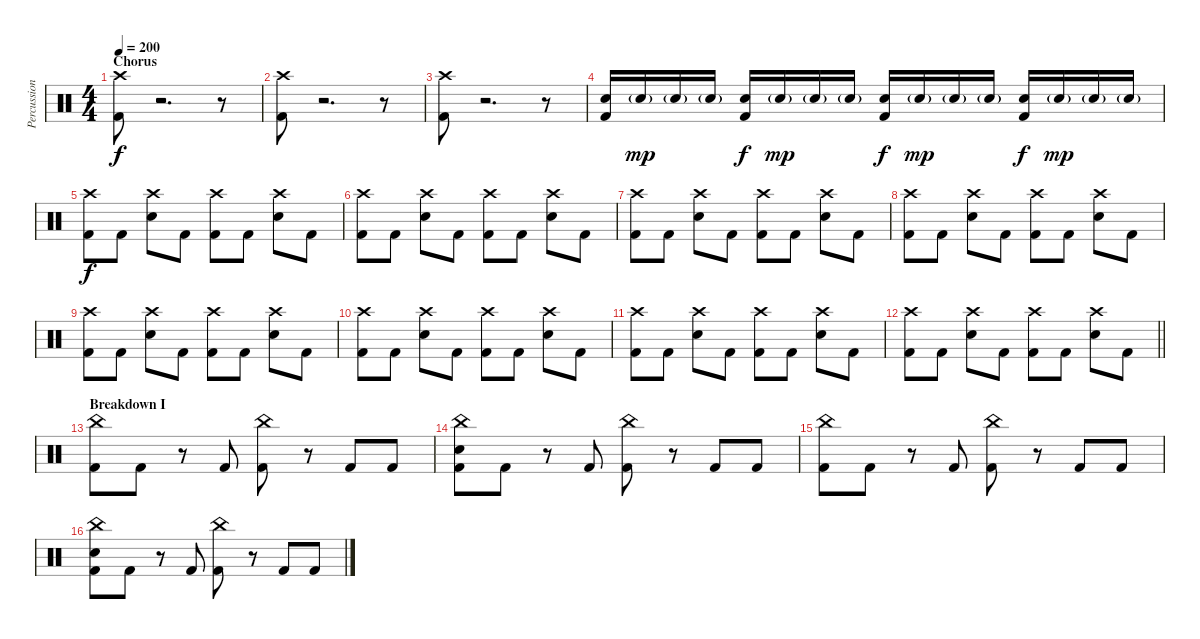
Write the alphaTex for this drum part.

\track ("Percussion" "Percussion") {instrument percussion}
\staff {score}
\articulation defaults
\ts (4 4)
\section ("" "Chorus")
\tempo 200
\clef neutral
\ks c
("Crash high (hit)" "Kick (hit) 2").8{dy f} r.2{d} r.8 |
("Crash high (hit)" "Kick (hit) 2").8 r.2{d} r.8 |
("Crash high (hit)" "Kick (hit) 2").8 r.2{d} r.8 |
("Electric Snare (hit)" "Kick (hit) 2").16 "Electric Snare (hit)"{g}.16{dy mp} "Electric Snare (hit)"{g}.16 "Electric Snare (hit)"{g}.16 ("Electric Snare (hit)" "Kick (hit) 2").16{dy f} "Electric Snare (hit)"{g}.16{dy mp} "Electric Snare (hit)"{g}.16 "Electric Snare (hit)"{g}.16 ("Electric Snare (hit)" "Kick (hit) 2").16{dy f} "Electric Snare (hit)"{g}.16{dy mp} "Electric Snare (hit)"{g}.16 "Electric Snare (hit)"{g}.16 ("Electric Snare (hit)" "Kick (hit) 2").16{dy f} "Electric Snare (hit)"{g}.16{dy mp} "Electric Snare (hit)"{g}.16 "Electric Snare (hit)"{g}.16 |
("Crash high (hit)" "Kick (hit) 2").8{dy f} "Kick (hit) 2".8 ("Crash high (hit)" "Electric Snare (hit)").8 "Kick (hit) 2".8 ("Crash high (hit)" "Kick (hit) 2").8 "Kick (hit) 2".8 ("Crash high (hit)" "Electric Snare (hit)").8 "Kick (hit) 2".8 |
("Crash high (hit)" "Kick (hit) 2").8 "Kick (hit) 2".8 ("Crash high (hit)" "Electric Snare (hit)").8 "Kick (hit) 2".8 ("Crash high (hit)" "Kick (hit) 2").8 "Kick (hit) 2".8 ("Crash high (hit)" "Electric Snare (hit)").8 "Kick (hit) 2".8 |
("Crash high (hit)" "Kick (hit) 2").8 "Kick (hit) 2".8 ("Crash high (hit)" "Electric Snare (hit)").8 "Kick (hit) 2".8 ("Crash high (hit)" "Kick (hit) 2").8 "Kick (hit) 2".8 ("Crash high (hit)" "Electric Snare (hit)").8 "Kick (hit) 2".8 |
("Crash high (hit)" "Kick (hit) 2").8 "Kick (hit) 2".8 ("Crash high (hit)" "Electric Snare (hit)").8 "Kick (hit) 2".8 ("Crash high (hit)" "Kick (hit) 2").8 "Kick (hit) 2".8 ("Crash high (hit)" "Electric Snare (hit)").8 "Kick (hit) 2".8 |
("Crash high (hit)" "Kick (hit) 2").8 "Kick (hit) 2".8 ("Crash high (hit)" "Electric Snare (hit)").8 "Kick (hit) 2".8 ("Crash high (hit)" "Kick (hit) 2").8 "Kick (hit) 2".8 ("Crash high (hit)" "Electric Snare (hit)").8 "Kick (hit) 2".8 |
("Crash high (hit)" "Kick (hit) 2").8 "Kick (hit) 2".8 ("Crash high (hit)" "Electric Snare (hit)").8 "Kick (hit) 2".8 ("Crash high (hit)" "Kick (hit) 2").8 "Kick (hit) 2".8 ("Crash high (hit)" "Electric Snare (hit)").8 "Kick (hit) 2".8 |
("Crash high (hit)" "Kick (hit) 2").8 "Kick (hit) 2".8 ("Crash high (hit)" "Electric Snare (hit)").8 "Kick (hit) 2".8 ("Crash high (hit)" "Kick (hit) 2").8 "Kick (hit) 2".8 ("Crash high (hit)" "Electric Snare (hit)").8 "Kick (hit) 2".8 |
\barLineRight lightlight
("Crash high (hit)" "Kick (hit) 2").8 "Kick (hit) 2".8 ("Crash high (hit)" "Electric Snare (hit)").8 "Kick (hit) 2".8 ("Crash high (hit)" "Kick (hit) 2").8 "Kick (hit) 2".8 ("Crash high (hit)" "Electric Snare (hit)").8 "Kick (hit) 2".8 |
\section ("" "Breakdown I")
("China (hit)" "Kick (hit) 2").8 "Kick (hit) 2".8 r.8 "Kick (hit) 2".8 ("China (hit)" "Kick (hit) 2").8 r.8 "Kick (hit) 2".8 "Kick (hit) 2".8 |
("China (hit)" "Electric Snare (hit)" "Kick (hit) 2").8 "Kick (hit) 2".8 r.8 "Kick (hit) 2".8 ("China (hit)" "Kick (hit) 2").8 r.8 "Kick (hit) 2".8 "Kick (hit) 2".8 |
("China (hit)" "Kick (hit) 2").8 "Kick (hit) 2".8 r.8 "Kick (hit) 2".8 ("China (hit)" "Kick (hit) 2").8 r.8 "Kick (hit) 2".8 "Kick (hit) 2".8 |
("China (hit)" "Electric Snare (hit)" "Kick (hit) 2").8 "Kick (hit) 2".8 r.8 "Kick (hit) 2".8 ("China (hit)" "Kick (hit) 2").8 r.8 "Kick (hit) 2".8 "Kick (hit) 2".8
